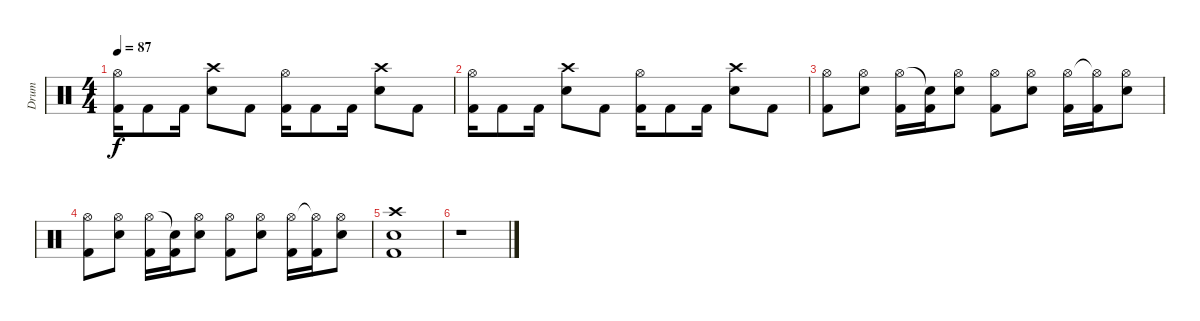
\track ("Drum" "Drum") {instrument percussion}
\staff {score}
\articulation defaults
\ts (4 4)
\tempo 87
\clef neutral
\ks c
("Hi-Hat (open)" "Kick (hit) 2").16{dy f} "Kick (hit) 2".8 "Kick (hit) 2".16 ("Crash high (hit)" "Electric Snare (hit)").8 "Kick (hit) 2".8 ("Hi-Hat (open)" "Kick (hit) 2").16 "Kick (hit) 2".8 "Kick (hit) 2".16 ("Crash high (hit)" "Electric Snare (hit)").8 "Kick (hit) 2".8 |
("Hi-Hat (open)" "Kick (hit) 2").16 "Kick (hit) 2".8 "Kick (hit) 2".16 ("Crash high (hit)" "Electric Snare (hit)").8 "Kick (hit) 2".8 ("Hi-Hat (open)" "Kick (hit) 2").16 "Kick (hit) 2".8 "Kick (hit) 2".16 ("Crash high (hit)" "Electric Snare (hit)").8 "Kick (hit) 2".8 |
("Hi-Hat (open)" "Kick (hit) 2").8 ("Hi-Hat (open)" "Electric Snare (hit)").8 ("Hi-Hat (open)" "Kick (hit) 2").16 ("Snare (hit)"{t} "Kick (hit) 2").16 ("Hi-Hat (open)" "Electric Snare (hit)").8 ("Hi-Hat (open)" "Kick (hit) 2").8 ("Hi-Hat (open)" "Electric Snare (hit)").8 ("Hi-Hat (open)" "Kick (hit) 2").16 ("Hi-Hat (open)"{t} "Kick (hit) 2").16 ("Hi-Hat (open)" "Electric Snare (hit)").8 |
("Hi-Hat (open)" "Kick (hit) 2").8 ("Hi-Hat (open)" "Electric Snare (hit)").8 ("Hi-Hat (open)" "Kick (hit) 2").16 ("Snare (hit)"{t} "Kick (hit) 2").16 ("Hi-Hat (open)" "Electric Snare (hit)").8 ("Hi-Hat (open)" "Kick (hit) 2").8 ("Hi-Hat (open)" "Electric Snare (hit)").8 ("Hi-Hat (open)" "Kick (hit) 2").16 ("Hi-Hat (open)"{t} "Kick (hit) 2").16 ("Hi-Hat (open)" "Electric Snare (hit)").8 |
("Crash high (hit)" "Electric Snare (hit)" "Kick (hit) 2").1 |
r.1
